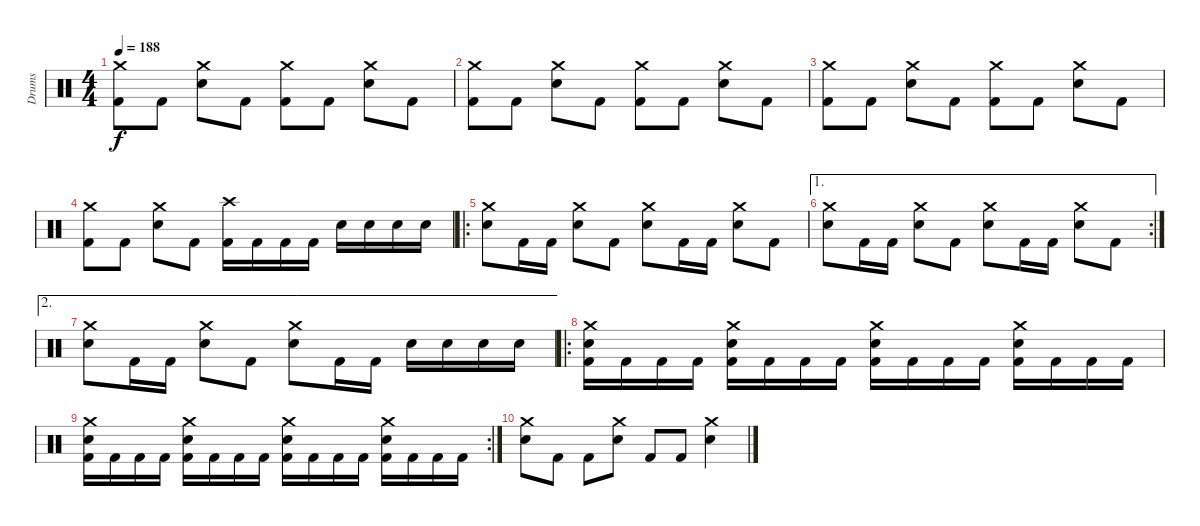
\track ("Drums" "Drums") {instrument percussion}
\staff {score}
\articulation defaults
\ts (4 4)
\tempo 188
\clef neutral
\ks c
("Crash medium (hit)" "Kick (hit) 2").8{dy f} "Kick (hit) 2".8 ("Crash medium (hit)" "Electric Snare (hit)").8 "Kick (hit) 2".8 ("Crash medium (hit)" "Kick (hit) 2").8 "Kick (hit) 2".8 ("Crash medium (hit)" "Electric Snare (hit)").8 "Kick (hit) 2".8 |
("Crash medium (hit)" "Kick (hit) 2").8 "Kick (hit) 2".8 ("Crash medium (hit)" "Electric Snare (hit)").8 "Kick (hit) 2".8 ("Crash medium (hit)" "Kick (hit) 2").8 "Kick (hit) 2".8 ("Crash medium (hit)" "Electric Snare (hit)").8 "Kick (hit) 2".8 |
("Crash medium (hit)" "Kick (hit) 2").8 "Kick (hit) 2".8 ("Crash medium (hit)" "Electric Snare (hit)").8 "Kick (hit) 2".8 ("Crash medium (hit)" "Kick (hit) 2").8 "Kick (hit) 2".8 ("Crash medium (hit)" "Electric Snare (hit)").8 "Kick (hit) 2".8 |
("Crash medium (hit)" "Kick (hit) 2").8 "Kick (hit) 2".8 ("Crash medium (hit)" "Electric Snare (hit)").8 "Kick (hit) 2".8 ("Crash high (hit)" "Kick (hit) 2").16 "Kick (hit) 2".16 "Kick (hit) 2".16 "Kick (hit) 2".16 "Electric Snare (hit)".16 "Electric Snare (hit)".16 "Electric Snare (hit)".16 "Electric Snare (hit)".16 |
\ro
("Crash medium (hit)" "Electric Snare (hit)").8 "Kick (hit) 2".16 "Kick (hit) 2".16 ("Crash medium (hit)" "Electric Snare (hit)").8 "Kick (hit) 2".8 ("Crash medium (hit)" "Electric Snare (hit)").8 "Kick (hit) 2".16 "Kick (hit) 2".16 ("Crash medium (hit)" "Electric Snare (hit)").8 "Kick (hit) 2".8 |
\ae 1
\rc 2
("Crash medium (hit)" "Electric Snare (hit)").8 "Kick (hit) 2".16 "Kick (hit) 2".16 ("Crash medium (hit)" "Electric Snare (hit)").8 "Kick (hit) 2".8 ("Crash medium (hit)" "Electric Snare (hit)").8 "Kick (hit) 2".16 "Kick (hit) 2".16 ("Crash medium (hit)" "Electric Snare (hit)").8 "Kick (hit) 2".8 |
\ae 2
("Crash medium (hit)" "Electric Snare (hit)").8 "Kick (hit) 2".16 "Kick (hit) 2".16 ("Crash medium (hit)" "Electric Snare (hit)").8 "Kick (hit) 2".8 ("Crash medium (hit)" "Electric Snare (hit)").8 "Kick (hit) 2".16 "Kick (hit) 2".16 "Electric Snare (hit)".16 "Electric Snare (hit)".16 "Electric Snare (hit)".16 "Electric Snare (hit)".16 |
\ro
("Crash medium (hit)" "Electric Snare (hit)" "Kick (hit) 2").16 "Kick (hit) 2".16 "Kick (hit) 2".16 "Kick (hit) 2".16 ("Crash medium (hit)" "Electric Snare (hit)" "Kick (hit) 2").16 "Kick (hit) 2".16 "Kick (hit) 2".16 "Kick (hit) 2".16 ("Crash medium (hit)" "Electric Snare (hit)" "Kick (hit) 2").16 "Kick (hit) 2".16 "Kick (hit) 2".16 "Kick (hit) 2".16 ("Crash medium (hit)" "Electric Snare (hit)" "Kick (hit) 2").16 "Kick (hit) 2".16 "Kick (hit) 2".16 "Kick (hit) 2".16 |
\rc 2
("Crash medium (hit)" "Electric Snare (hit)" "Kick (hit) 2").16 "Kick (hit) 2".16 "Kick (hit) 2".16 "Kick (hit) 2".16 ("Crash medium (hit)" "Electric Snare (hit)" "Kick (hit) 2").16 "Kick (hit) 2".16 "Kick (hit) 2".16 "Kick (hit) 2".16 ("Crash medium (hit)" "Electric Snare (hit)" "Kick (hit) 2").16 "Kick (hit) 2".16 "Kick (hit) 2".16 "Kick (hit) 2".16 ("Crash medium (hit)" "Electric Snare (hit)" "Kick (hit) 2").16 "Kick (hit) 2".16 "Kick (hit) 2".16 "Kick (hit) 2".16 |
("Crash medium (hit)" "Electric Snare (hit)").8 "Kick (hit) 2".8 "Kick (hit) 2".8 ("Crash medium (hit)" "Electric Snare (hit)").8 "Kick (hit) 2".8 "Kick (hit) 2".8 ("Crash medium (hit)" "Electric Snare (hit)").4
